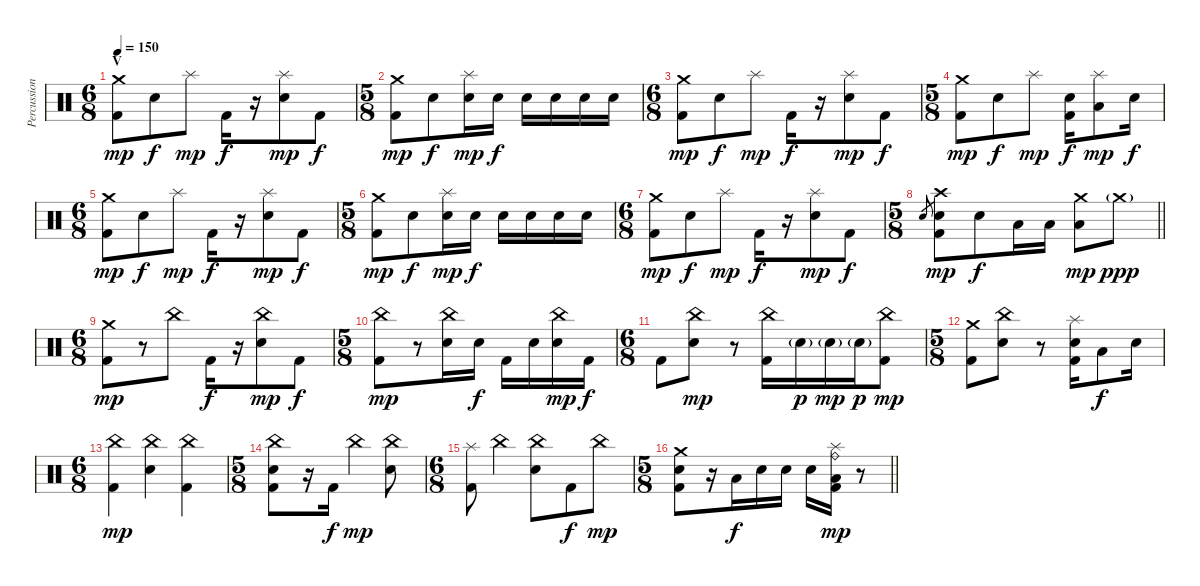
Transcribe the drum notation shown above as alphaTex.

\track ("Percussion" "Percussion") {instrument percussion}
\staff {score}
\articulation defaults
\ts (6 8)
\section ("" "V")
\tempo 150
\clef neutral
\ks c
("Crash medium (hit)" "Kick (hit) 2").8{dy mp} "Electric Snare (hit)".8{dy f} "Splash (hit)".8{dy mp} "Kick (hit) 2".16{dy f} r.16 ("Splash (hit)" "Electric Snare (hit)").8{dy mp} "Kick (hit) 2".8{dy f} |
\ts (5 8)
("Crash medium (hit)" "Kick (hit) 2").8{dy mp} "Electric Snare (hit)".8{dy f} ("Splash (hit)" "Electric Snare (hit)").16{dy mp} "Electric Snare (hit)".16{dy f} "Electric Snare (hit)".16 "Electric Snare (hit)".16 "Electric Snare (hit)".16 "Electric Snare (hit)".16 |
\ts (6 8)
("Crash medium (hit)" "Kick (hit) 2").8{dy mp} "Electric Snare (hit)".8{dy f} "Splash (hit)".8{dy mp} "Kick (hit) 2".16{dy f} r.16 ("Splash (hit)" "Electric Snare (hit)").8{dy mp} "Kick (hit) 2".8{dy f} |
\ts (5 8)
("Crash medium (hit)" "Kick (hit) 2").8{dy mp} "Electric Snare (hit)".8{dy f} "Splash (hit)".8{dy mp} ("Electric Snare (hit)" "Kick (hit) 2").16{dy f} ("Splash (hit)" "Low Floor Tom (hit)").8{dy mp} "Electric Snare (hit)".16{dy f} |
\ts (6 8)
("Crash medium (hit)" "Kick (hit) 2").8{dy mp} "Electric Snare (hit)".8{dy f} "Splash (hit)".8{dy mp} "Kick (hit) 2".16{dy f} r.16 ("Splash (hit)" "Electric Snare (hit)").8{dy mp} "Kick (hit) 2".8{dy f} |
\ts (5 8)
("Crash medium (hit)" "Kick (hit) 2").8{dy mp} "Electric Snare (hit)".8{dy f} ("Splash (hit)" "Electric Snare (hit)").16{dy mp} "Electric Snare (hit)".16{dy f} "Electric Snare (hit)".16 "Electric Snare (hit)".16 "Electric Snare (hit)".16 "Electric Snare (hit)".16 |
\ts (6 8)
("Crash medium (hit)" "Kick (hit) 2").8{dy mp} "Electric Snare (hit)".8{dy f} "Splash (hit)".8{dy mp} "Kick (hit) 2".16{dy f} r.16 ("Splash (hit)" "Electric Snare (hit)").8{dy mp} "Kick (hit) 2".8{dy f} |
\ts (5 8)
\barLineRight lightlight "Electric Snare (hit)".8{gr}
("Crash high (hit)" "Electric Snare (hit)" "Kick (hit) 2").8{dy mp} "Electric Snare (hit)".8{dy f} "Low Tom (hit)".16 "Low Tom (hit)".16 ("Crash medium (hit)" "Low Floor Tom (hit)").8{dy mp} "Crash medium (hit)"{g}.8{dy ppp} |
\ts (6 8)
("Crash medium (hit)" "Kick (hit) 2").8{dy mp} r.8 "China (hit)".8 "Kick (hit) 2".16{dy f} r.16 ("China (hit)" "Electric Snare (hit)").8{dy mp} "Kick (hit) 2".8{dy f} |
\ts (5 8)
("China (hit)" "Kick (hit) 2").8{dy mp} r.8 ("China (hit)" "Electric Snare (hit)").16 "Electric Snare (hit)".16{dy f} "Kick (hit) 2".16 "Electric Snare (hit)".16 ("China (hit)" "Electric Snare (hit)").16{dy mp} "Kick (hit) 2".16{dy f} |
\ts (6 8)
"Kick (hit) 2".8 ("China (hit)" "Electric Snare (hit)").8{dy mp} r.8 ("China (hit)" "Kick (hit) 2").16 "Electric Snare (hit)"{g}.16{dy p} "Electric Snare (hit)"{g}.16{dy mp} "Electric Snare (hit)"{g}.16{dy p} ("China (hit)" "Kick (hit) 2").8{dy mp} |
\ts (5 8)
("Crash medium (hit)" "Kick (hit) 2").8 ("China (hit)" "Electric Snare (hit)").8 r.8 ("Splash (hit)" "Electric Snare (hit)" "Kick (hit) 2").16 "Low Floor Tom (hit)".8{dy f} "Electric Snare (hit)".16 |
\ts (6 8)
("China (hit)" "Kick (hit) 2").4{dy mp} ("China (hit)" "Electric Snare (hit)").4 ("China (hit)" "Kick (hit) 2").4 |
\ts (5 8)
("China (hit)" "Electric Snare (hit)" "Kick (hit) 2").8 r.16 "Kick (hit) 2".16{dy f} "China (hit)".4{dy mp} ("China (hit)" "Electric Snare (hit)").8 |
\ts (6 8)
("Splash (hit)" "Kick (hit) 2").8 "China (hit)".4 ("China (hit)" "Electric Snare (hit)").8 "Kick (hit) 2".8{dy f} "China (hit)".8{dy mp} |
\ts (5 8)
\barLineRight lightlight
("Crash medium (hit)" "Electric Snare (hit)" "Kick (hit) 2").8 r.16 "Low Floor Tom (hit)".16{dy f} "Electric Snare (hit)".16 "Electric Snare (hit)".16 "Electric Snare (hit)".16 ("Splash (hit)" "Ride (bell)" "Low Floor Tom (hit)" "Kick (hit) 2").16{dy mp} r.8
